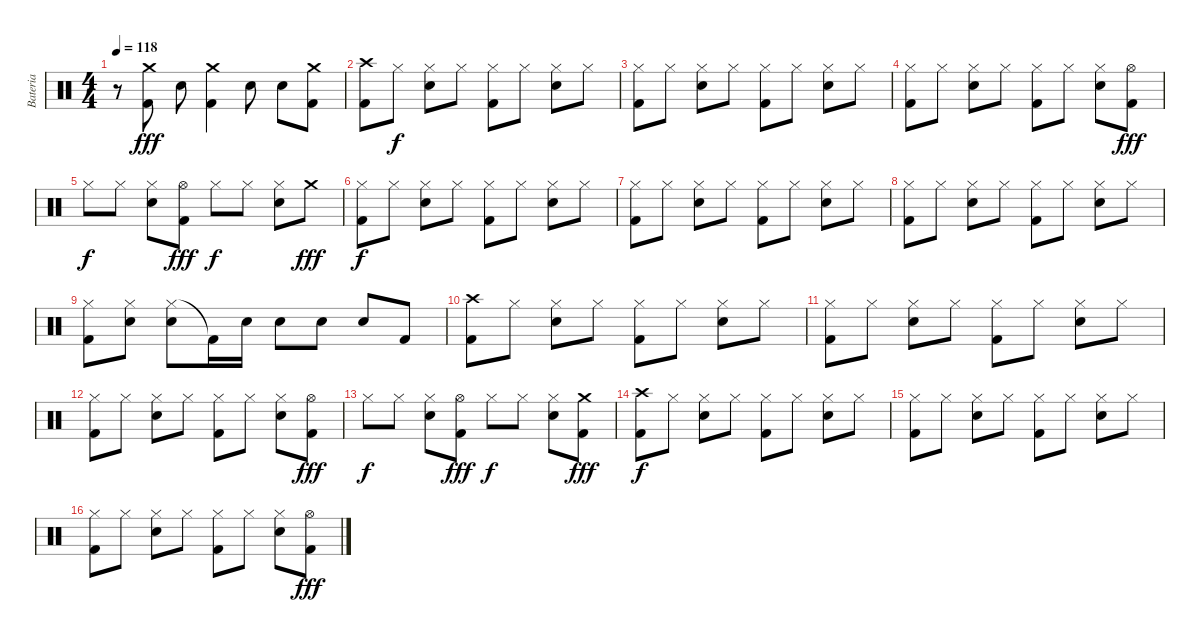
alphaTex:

\track ("Bateria" "Bateria") {instrument percussion}
\staff {score}
\articulation defaults
\ts (4 4)
\tempo 118
\clef neutral
\ks c
r.8{dy fff} ("Crash medium (hit)" "Kick (hit) 2").8 "Electric Snare (hit)".8 ("Crash medium (hit)" "Kick (hit) 2").4 "Electric Snare (hit)".8 "Electric Snare (hit)".8 ("Crash medium (hit)" "Kick (hit) 2").8 |
("Crash high (hit)" "Kick (hit) 2").8 "Hi-Hat (closed)".8{dy f} ("Electric Snare (hit)" "Hi-Hat (closed)").8 "Hi-Hat (closed)".8 ("Kick (hit) 2" "Hi-Hat (closed)").8 "Hi-Hat (closed)".8 ("Electric Snare (hit)" "Hi-Hat (closed)").8 "Hi-Hat (closed)".8 |
("Kick (hit) 2" "Hi-Hat (closed)").8 "Hi-Hat (closed)".8 ("Electric Snare (hit)" "Hi-Hat (closed)").8 "Hi-Hat (closed)".8 ("Kick (hit) 2" "Hi-Hat (closed)").8 "Hi-Hat (closed)".8 ("Electric Snare (hit)" "Hi-Hat (closed)").8 "Hi-Hat (closed)".8 |
("Kick (hit) 2" "Hi-Hat (closed)").8 "Hi-Hat (closed)".8 ("Electric Snare (hit)" "Hi-Hat (closed)").8 "Hi-Hat (closed)".8 ("Kick (hit) 2" "Hi-Hat (closed)").8 "Hi-Hat (closed)".8 ("Electric Snare (hit)" "Hi-Hat (closed)").8 ("Kick (hit) 2" "Hi-Hat (open)").8{dy fff} |
"Hi-Hat (closed)".8{dy f} "Hi-Hat (closed)".8 ("Electric Snare (hit)" "Hi-Hat (closed)").8 ("Kick (hit) 2" "Hi-Hat (open)").8{dy fff} "Hi-Hat (closed)".8{dy f} "Hi-Hat (closed)".8 ("Electric Snare (hit)" "Hi-Hat (closed)").8 "Crash medium (hit)".8{dy fff} |
("Kick (hit) 2" "Hi-Hat (closed)").8{dy f} "Hi-Hat (closed)".8 ("Electric Snare (hit)" "Hi-Hat (closed)").8 "Hi-Hat (closed)".8 ("Kick (hit) 2" "Hi-Hat (closed)").8 "Hi-Hat (closed)".8 ("Electric Snare (hit)" "Hi-Hat (closed)").8 "Hi-Hat (closed)".8 |
("Kick (hit) 2" "Hi-Hat (closed)").8 "Hi-Hat (closed)".8 ("Electric Snare (hit)" "Hi-Hat (closed)").8 "Hi-Hat (closed)".8 ("Kick (hit) 2" "Hi-Hat (closed)").8 "Hi-Hat (closed)".8 ("Electric Snare (hit)" "Hi-Hat (closed)").8 "Hi-Hat (closed)".8 |
("Kick (hit) 2" "Hi-Hat (closed)").8 "Hi-Hat (closed)".8 ("Electric Snare (hit)" "Hi-Hat (closed)").8 "Hi-Hat (closed)".8 ("Kick (hit) 2" "Hi-Hat (closed)").8 "Hi-Hat (closed)".8 ("Electric Snare (hit)" "Hi-Hat (closed)").8 "Hi-Hat (closed)".8 |
("Kick (hit) 2" "Hi-Hat (closed)").8 ("Hi-Hat (closed)" "Electric Snare (hit)").8 ("Hi-Hat (closed)" "Electric Snare (hit)").8 "Kick (hit) 2"{t}.16 "Electric Snare (hit)".16 "Electric Snare (hit)".8 "Electric Snare (hit)".8 "Electric Snare (hit)".8 "Kick (hit) 2".8 |
("Crash high (hit)" "Kick (hit) 2").8 "Hi-Hat (closed)".8 ("Electric Snare (hit)" "Hi-Hat (closed)").8 "Hi-Hat (closed)".8 ("Kick (hit) 2" "Hi-Hat (closed)").8 "Hi-Hat (closed)".8 ("Electric Snare (hit)" "Hi-Hat (closed)").8 "Hi-Hat (closed)".8 |
("Kick (hit) 2" "Hi-Hat (closed)").8 "Hi-Hat (closed)".8 ("Electric Snare (hit)" "Hi-Hat (closed)").8 "Hi-Hat (closed)".8 ("Kick (hit) 2" "Hi-Hat (closed)").8 "Hi-Hat (closed)".8 ("Electric Snare (hit)" "Hi-Hat (closed)").8 "Hi-Hat (closed)".8 |
("Kick (hit) 2" "Hi-Hat (closed)").8 "Hi-Hat (closed)".8 ("Electric Snare (hit)" "Hi-Hat (closed)").8 "Hi-Hat (closed)".8 ("Kick (hit) 2" "Hi-Hat (closed)").8 "Hi-Hat (closed)".8 ("Electric Snare (hit)" "Hi-Hat (closed)").8 ("Kick (hit) 2" "Hi-Hat (open)").8{dy fff} |
"Hi-Hat (closed)".8{dy f} "Hi-Hat (closed)".8 ("Electric Snare (hit)" "Hi-Hat (closed)").8 ("Kick (hit) 2" "Hi-Hat (open)").8{dy fff} "Hi-Hat (closed)".8{dy f} "Hi-Hat (closed)".8 ("Electric Snare (hit)" "Hi-Hat (closed)").8 ("Kick (hit) 2" "Crash medium (hit)").8{dy fff} |
("Crash high (hit)" "Kick (hit) 2").8{dy f} "Hi-Hat (closed)".8 ("Electric Snare (hit)" "Hi-Hat (closed)").8 "Hi-Hat (closed)".8 ("Kick (hit) 2" "Hi-Hat (closed)").8 "Hi-Hat (closed)".8 ("Electric Snare (hit)" "Hi-Hat (closed)").8 "Hi-Hat (closed)".8 |
("Kick (hit) 2" "Hi-Hat (closed)").8 "Hi-Hat (closed)".8 ("Electric Snare (hit)" "Hi-Hat (closed)").8 "Hi-Hat (closed)".8 ("Kick (hit) 2" "Hi-Hat (closed)").8 "Hi-Hat (closed)".8 ("Electric Snare (hit)" "Hi-Hat (closed)").8 "Hi-Hat (closed)".8 |
("Kick (hit) 2" "Hi-Hat (closed)").8 "Hi-Hat (closed)".8 ("Electric Snare (hit)" "Hi-Hat (closed)").8 "Hi-Hat (closed)".8 ("Kick (hit) 2" "Hi-Hat (closed)").8 "Hi-Hat (closed)".8 ("Electric Snare (hit)" "Hi-Hat (closed)").8 ("Kick (hit) 2" "Hi-Hat (open)").8{dy fff}
